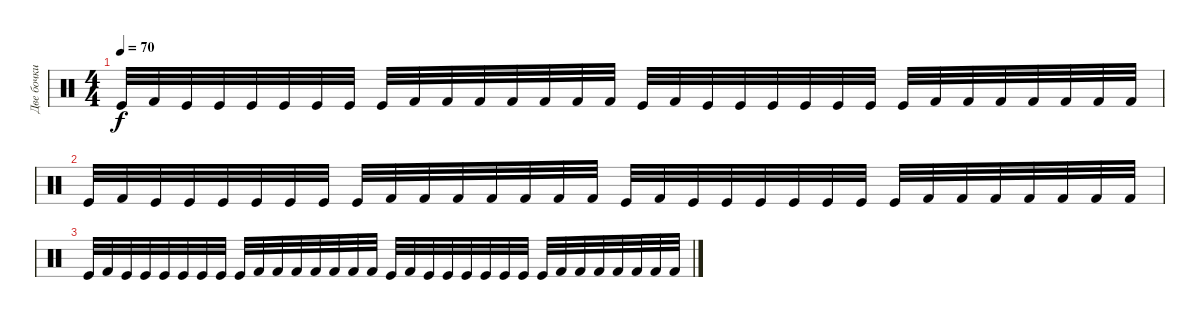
\track ("Две бочки" "Две бочки") {instrument percussion}
\staff {score}
\articulation defaults
\ts (4 4)
\tempo 70
\clef neutral
\ks c "Kick (hit)".32{dy f} "Kick (hit) 2".32 "Kick (hit)".32 "Kick (hit)".32 "Kick (hit)".32 "Kick (hit)".32 "Kick (hit)".32 "Kick (hit)".32 "Kick (hit)".32 "Kick (hit) 2".32 "Kick (hit) 2".32 "Kick (hit) 2".32 "Kick (hit) 2".32 "Kick (hit) 2".32 "Kick (hit) 2".32 "Kick (hit) 2".32 "Kick (hit)".32 "Kick (hit) 2".32 "Kick (hit)".32 "Kick (hit)".32 "Kick (hit)".32 "Kick (hit)".32 "Kick (hit)".32 "Kick (hit)".32 "Kick (hit)".32 "Kick (hit) 2".32 "Kick (hit) 2".32 "Kick (hit) 2".32 "Kick (hit) 2".32 "Kick (hit) 2".32 "Kick (hit) 2".32 "Kick (hit) 2".32
|
"Kick (hit)".32 "Kick (hit) 2".32 "Kick (hit)".32 "Kick (hit)".32 "Kick (hit)".32 "Kick (hit)".32 "Kick (hit)".32 "Kick (hit)".32 "Kick (hit)".32 "Kick (hit) 2".32 "Kick (hit) 2".32 "Kick (hit) 2".32 "Kick (hit) 2".32 "Kick (hit) 2".32 "Kick (hit) 2".32 "Kick (hit) 2".32 "Kick (hit)".32 "Kick (hit) 2".32 "Kick (hit)".32 "Kick (hit)".32 "Kick (hit)".32 "Kick (hit)".32 "Kick (hit)".32 "Kick (hit)".32 "Kick (hit)".32 "Kick (hit) 2".32 "Kick (hit) 2".32 "Kick (hit) 2".32 "Kick (hit) 2".32 "Kick (hit) 2".32 "Kick (hit) 2".32 "Kick (hit) 2".32 |
"Kick (hit)".32 "Kick (hit) 2".32 "Kick (hit)".32 "Kick (hit)".32 "Kick (hit)".32 "Kick (hit)".32 "Kick (hit)".32 "Kick (hit)".32 "Kick (hit)".32 "Kick (hit) 2".32 "Kick (hit) 2".32 "Kick (hit) 2".32 "Kick (hit) 2".32 "Kick (hit) 2".32 "Kick (hit) 2".32 "Kick (hit) 2".32 "Kick (hit)".32 "Kick (hit) 2".32 "Kick (hit)".32 "Kick (hit)".32 "Kick (hit)".32 "Kick (hit)".32 "Kick (hit)".32 "Kick (hit)".32 "Kick (hit)".32 "Kick (hit) 2".32 "Kick (hit) 2".32 "Kick (hit) 2".32 "Kick (hit) 2".32 "Kick (hit) 2".32 "Kick (hit) 2".32 "Kick (hit) 2".32
